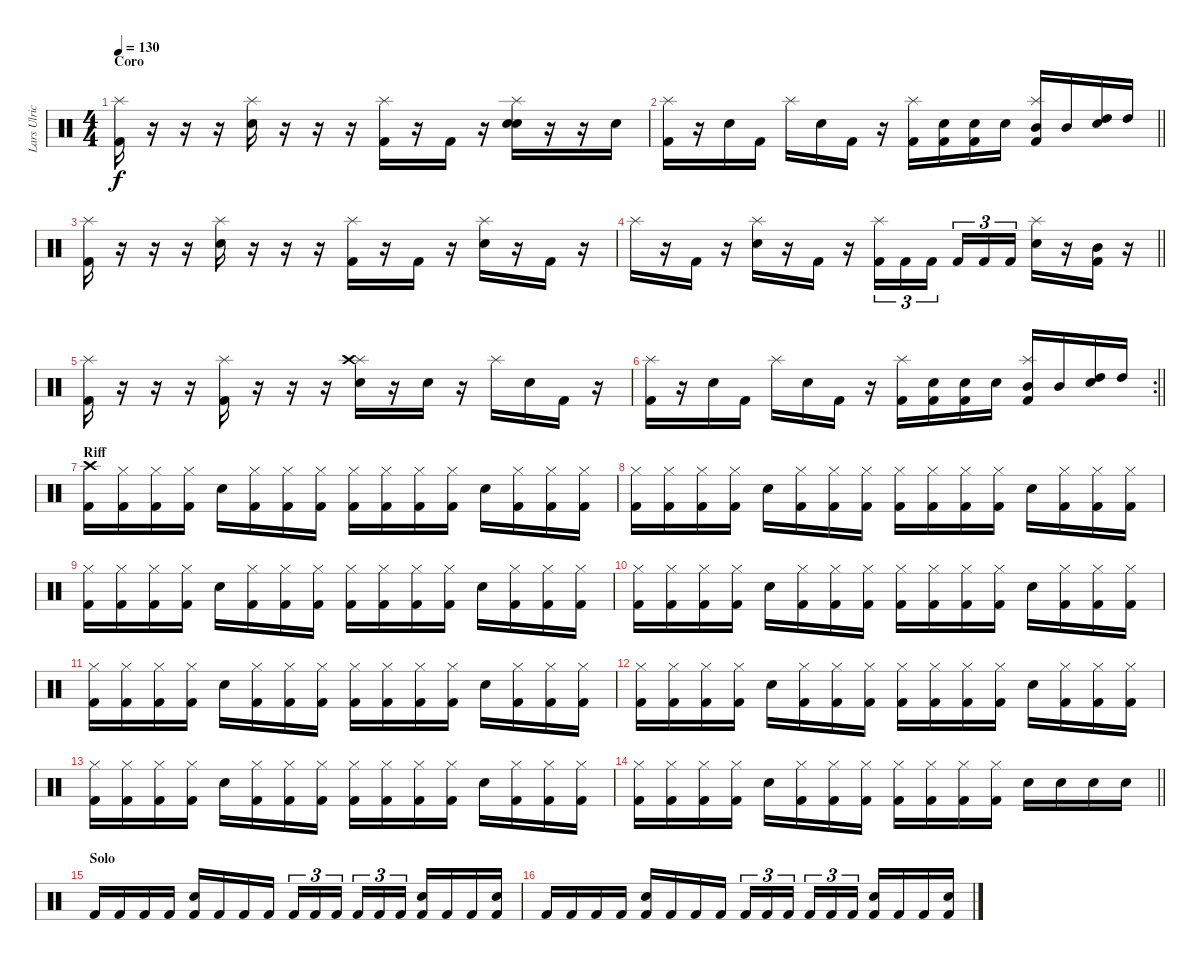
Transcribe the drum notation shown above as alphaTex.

\track ("Lars Ulrich" "Lars Ulric") {instrument percussion}
\staff {score}
\articulation defaults
\ts (4 4)
\section ("" "Coro")
\tempo 130
\clef neutral
\ks c
("Kick (hit) 2" "Splash (hit)").16{dy f} r.16 r.16 r.16 ("Electric Snare (hit)" "Splash (hit)").16 r.16 r.16 r.16 ("Kick (hit) 2" "Splash (hit)").16 r.16 "Kick (hit) 2".16 r.16 ("Electric Snare (hit)" "Splash (hit)" "Electric Snare (hit)").16 r.16 r.16 "Electric Snare (hit)".16 |
\barLineRight lightlight
("Kick (hit) 2" "Splash (hit)").16 r.16 "Electric Snare (hit)".16 "Kick (hit) 2".16 "Splash (hit)".16 "Electric Snare (hit)".16 "Kick (hit) 2".16 r.16 ("Kick (hit) 2" "Splash (hit)").16 ("Kick (hit) 2" "Electric Snare (hit)").16 ("Kick (hit) 2" "Electric Snare (hit)").16 "Electric Snare (hit)".16 ("Kick (hit) 2" "Splash (hit)" "Mid Tom (hit)").16 "Mid Tom (hit)".16 ("Electric Snare (hit)" "High Tom (hit)").16 "High Tom (hit)".16 |
("Splash (hit)" "Kick (hit) 2").16 r.16 r.16 r.16 ("Electric Snare (hit)" "Splash (hit)").16 r.16 r.16 r.16 ("Kick (hit) 2" "Splash (hit)").16 r.16 "Kick (hit) 2".16 r.16 ("Electric Snare (hit)" "Splash (hit)").16 r.16 "Kick (hit) 2".16 r.16 |
\barLineRight lightlight "Splash (hit)".16
r.16 "Kick (hit) 2".16 r.16 ("Electric Snare (hit)" "Splash (hit)").16 r.16 "Kick (hit) 2".16 r.16 ("Kick (hit) 2" "Splash (hit)").16{tu (3 2)} "Kick (hit) 2".16{tu (3 2)} "Kick (hit) 2".16{tu (3 2) beam splitsecondary} "Kick (hit) 2".16{tu (3 2)} "Kick (hit) 2".16{tu (3 2)} "Kick (hit) 2".16{tu (3 2)} ("Electric Snare (hit)" "Splash (hit)").16 r.16 ("Kick (hit) 2" "Mid Tom (hit)").16 r.16 |
("Kick (hit) 2" "Splash (hit)").16 r.16 r.16 r.16 ("Kick (hit) 2" "Splash (hit)").16 r.16 r.16 r.16 ("Electric Snare (hit)" "Splash (hit)" "Crash high (hit)").16 r.16 "Electric Snare (hit)".16 r.16 "Splash (hit)".16 "Electric Snare (hit)".16 "Kick (hit) 2".16 r.16 |
\rc 2
\barLineRight lightlight
("Kick (hit) 2" "Splash (hit)").16 r.16 "Electric Snare (hit)".16 "Kick (hit) 2".16 "Splash (hit)".16 "Electric Snare (hit)".16 "Kick (hit) 2".16 r.16 ("Kick (hit) 2" "Splash (hit)").16 ("Kick (hit) 2" "Electric Snare (hit)").16 ("Kick (hit) 2" "Electric Snare (hit)").16 "Electric Snare (hit)".16 ("Kick (hit) 2" "Splash (hit)" "Mid Tom (hit)").16 "Mid Tom (hit)".16 ("Electric Snare (hit)" "High Tom (hit)").16 "High Tom (hit)".16 |
\section ("" "Riff")
("Kick (hit) 2" "Crash high (hit)").16 ("Kick (hit) 2" "Hi-Hat (closed)").16 ("Kick (hit) 2" "Hi-Hat (closed)").16 ("Kick (hit) 2" "Hi-Hat (closed)").16 "Electric Snare (hit)".16 ("Kick (hit) 2" "Hi-Hat (closed)").16 ("Kick (hit) 2" "Hi-Hat (closed)").16 ("Kick (hit) 2" "Hi-Hat (closed)").16 ("Kick (hit) 2" "Hi-Hat (closed)").16 ("Kick (hit) 2" "Hi-Hat (closed)").16 ("Kick (hit) 2" "Hi-Hat (closed)").16 ("Kick (hit) 2" "Hi-Hat (closed)").16 "Electric Snare (hit)".16 ("Kick (hit) 2" "Hi-Hat (closed)").16 ("Kick (hit) 2" "Hi-Hat (closed)").16 ("Kick (hit) 2" "Hi-Hat (closed)").16 |
("Kick (hit) 2" "Hi-Hat (closed)").16 ("Kick (hit) 2" "Hi-Hat (closed)").16 ("Kick (hit) 2" "Hi-Hat (closed)").16 ("Kick (hit) 2" "Hi-Hat (closed)").16 "Electric Snare (hit)".16 ("Kick (hit) 2" "Hi-Hat (closed)").16 ("Kick (hit) 2" "Hi-Hat (closed)").16 ("Kick (hit) 2" "Hi-Hat (closed)").16 ("Kick (hit) 2" "Hi-Hat (closed)").16 ("Kick (hit) 2" "Hi-Hat (closed)").16 ("Kick (hit) 2" "Hi-Hat (closed)").16 ("Kick (hit) 2" "Hi-Hat (closed)").16 "Electric Snare (hit)".16 ("Kick (hit) 2" "Hi-Hat (closed)").16 ("Kick (hit) 2" "Hi-Hat (closed)").16 ("Kick (hit) 2" "Hi-Hat (closed)").16 |
("Kick (hit) 2" "Hi-Hat (closed)").16 ("Kick (hit) 2" "Hi-Hat (closed)").16 ("Kick (hit) 2" "Hi-Hat (closed)").16 ("Kick (hit) 2" "Hi-Hat (closed)").16 "Electric Snare (hit)".16 ("Kick (hit) 2" "Hi-Hat (closed)").16 ("Kick (hit) 2" "Hi-Hat (closed)").16 ("Kick (hit) 2" "Hi-Hat (closed)").16 ("Kick (hit) 2" "Hi-Hat (closed)").16 ("Kick (hit) 2" "Hi-Hat (closed)").16 ("Kick (hit) 2" "Hi-Hat (closed)").16 ("Kick (hit) 2" "Hi-Hat (closed)").16 "Electric Snare (hit)".16 ("Kick (hit) 2" "Hi-Hat (closed)").16 ("Kick (hit) 2" "Hi-Hat (closed)").16 ("Kick (hit) 2" "Hi-Hat (closed)").16 |
("Kick (hit) 2" "Hi-Hat (closed)").16 ("Kick (hit) 2" "Hi-Hat (closed)").16 ("Kick (hit) 2" "Hi-Hat (closed)").16 ("Kick (hit) 2" "Hi-Hat (closed)").16 "Electric Snare (hit)".16 ("Kick (hit) 2" "Hi-Hat (closed)").16 ("Kick (hit) 2" "Hi-Hat (closed)").16 ("Kick (hit) 2" "Hi-Hat (closed)").16 ("Kick (hit) 2" "Hi-Hat (closed)").16 ("Kick (hit) 2" "Hi-Hat (closed)").16 ("Kick (hit) 2" "Hi-Hat (closed)").16 ("Kick (hit) 2" "Hi-Hat (closed)").16 "Electric Snare (hit)".16 ("Kick (hit) 2" "Hi-Hat (closed)").16 ("Kick (hit) 2" "Hi-Hat (closed)").16 ("Kick (hit) 2" "Hi-Hat (closed)").16 |
("Kick (hit) 2" "Hi-Hat (closed)").16 ("Kick (hit) 2" "Hi-Hat (closed)").16 ("Kick (hit) 2" "Hi-Hat (closed)").16 ("Kick (hit) 2" "Hi-Hat (closed)").16 "Electric Snare (hit)".16 ("Kick (hit) 2" "Hi-Hat (closed)").16 ("Kick (hit) 2" "Hi-Hat (closed)").16 ("Kick (hit) 2" "Hi-Hat (closed)").16 ("Kick (hit) 2" "Hi-Hat (closed)").16 ("Kick (hit) 2" "Hi-Hat (closed)").16 ("Kick (hit) 2" "Hi-Hat (closed)").16 ("Kick (hit) 2" "Hi-Hat (closed)").16 "Electric Snare (hit)".16 ("Kick (hit) 2" "Hi-Hat (closed)").16 ("Kick (hit) 2" "Hi-Hat (closed)").16 ("Kick (hit) 2" "Hi-Hat (closed)").16 |
("Kick (hit) 2" "Hi-Hat (closed)").16 ("Kick (hit) 2" "Hi-Hat (closed)").16 ("Kick (hit) 2" "Hi-Hat (closed)").16 ("Kick (hit) 2" "Hi-Hat (closed)").16 "Electric Snare (hit)".16 ("Kick (hit) 2" "Hi-Hat (closed)").16 ("Kick (hit) 2" "Hi-Hat (closed)").16 ("Kick (hit) 2" "Hi-Hat (closed)").16 ("Kick (hit) 2" "Hi-Hat (closed)").16 ("Kick (hit) 2" "Hi-Hat (closed)").16 ("Kick (hit) 2" "Hi-Hat (closed)").16 ("Kick (hit) 2" "Hi-Hat (closed)").16 "Electric Snare (hit)".16 ("Kick (hit) 2" "Hi-Hat (closed)").16 ("Kick (hit) 2" "Hi-Hat (closed)").16 ("Kick (hit) 2" "Hi-Hat (closed)").16 |
("Kick (hit) 2" "Hi-Hat (closed)").16 ("Kick (hit) 2" "Hi-Hat (closed)").16 ("Kick (hit) 2" "Hi-Hat (closed)").16 ("Kick (hit) 2" "Hi-Hat (closed)").16 "Electric Snare (hit)".16 ("Kick (hit) 2" "Hi-Hat (closed)").16 ("Kick (hit) 2" "Hi-Hat (closed)").16 ("Kick (hit) 2" "Hi-Hat (closed)").16 ("Kick (hit) 2" "Hi-Hat (closed)").16 ("Kick (hit) 2" "Hi-Hat (closed)").16 ("Kick (hit) 2" "Hi-Hat (closed)").16 ("Kick (hit) 2" "Hi-Hat (closed)").16 "Electric Snare (hit)".16 ("Kick (hit) 2" "Hi-Hat (closed)").16 ("Kick (hit) 2" "Hi-Hat (closed)").16 ("Kick (hit) 2" "Hi-Hat (closed)").16 |
\barLineRight lightlight
("Kick (hit) 2" "Hi-Hat (closed)").16 ("Kick (hit) 2" "Hi-Hat (closed)").16 ("Kick (hit) 2" "Hi-Hat (closed)").16 ("Kick (hit) 2" "Hi-Hat (closed)").16 "Electric Snare (hit)".16 ("Kick (hit) 2" "Hi-Hat (closed)").16 ("Kick (hit) 2" "Hi-Hat (closed)").16 ("Kick (hit) 2" "Hi-Hat (closed)").16 ("Kick (hit) 2" "Hi-Hat (closed)").16 ("Kick (hit) 2" "Hi-Hat (closed)").16 ("Kick (hit) 2" "Hi-Hat (closed)").16 ("Kick (hit) 2" "Hi-Hat (closed)").16 "Electric Snare (hit)".16 "Electric Snare (hit)".16 "Electric Snare (hit)".16 "Electric Snare (hit)".16 |
\section ("" "Solo")
"Kick (hit) 2".16 "Kick (hit) 2".16 "Kick (hit) 2".16 "Kick (hit) 2".16 ("Kick (hit) 2" "Electric Snare (hit)").16 "Kick (hit) 2".16 "Kick (hit) 2".16 "Kick (hit) 2".16 "Kick (hit) 2".16{tu (3 2)} "Kick (hit) 2".16{tu (3 2)} "Kick (hit) 2".16{tu (3 2) beam splitsecondary} "Kick (hit) 2".16{tu (3 2)} "Kick (hit) 2".16{tu (3 2)} "Kick (hit) 2".16{tu (3 2)} ("Kick (hit) 2" "Electric Snare (hit)").16 "Kick (hit) 2".16 "Kick (hit) 2".16 ("Kick (hit) 2" "Electric Snare (hit)").16 |
"Kick (hit) 2".16 "Kick (hit) 2".16 "Kick (hit) 2".16 "Kick (hit) 2".16 ("Kick (hit) 2" "Electric Snare (hit)").16 "Kick (hit) 2".16 "Kick (hit) 2".16 "Kick (hit) 2".16 "Kick (hit) 2".16{tu (3 2)} "Kick (hit) 2".16{tu (3 2)} "Kick (hit) 2".16{tu (3 2) beam splitsecondary} "Kick (hit) 2".16{tu (3 2)} "Kick (hit) 2".16{tu (3 2)} "Kick (hit) 2".16{tu (3 2)} ("Kick (hit) 2" "Electric Snare (hit)").16 "Kick (hit) 2".16 "Kick (hit) 2".16 ("Kick (hit) 2" "Electric Snare (hit)").16
